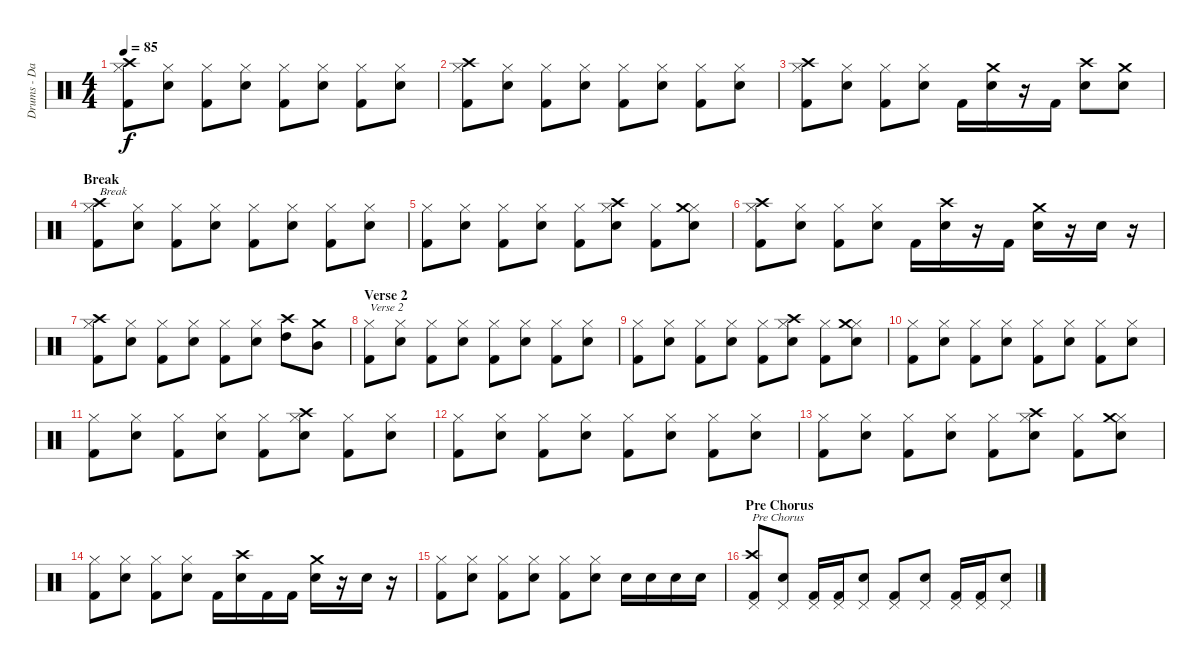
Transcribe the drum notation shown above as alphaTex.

\track ("Drums - Daniel Zimmermann" "Drums - Da") {instrument percussion}
\staff {score}
\articulation defaults
\ts (4 4)
\tempo 85
\clef neutral
\ks c
("Hi-Hat (closed)" "Kick (hit) 2" "Crash high (hit)").8{dy f} ("Hi-Hat (closed)" "Snare (hit) 2").8 ("Hi-Hat (closed)" "Kick (hit) 2").8 ("Hi-Hat (closed)" "Snare (hit) 2").8 ("Hi-Hat (closed)" "Kick (hit) 2").8 ("Hi-Hat (closed)" "Snare (hit) 2").8 ("Hi-Hat (closed)" "Kick (hit) 2").8 ("Hi-Hat (closed)" "Snare (hit) 2").8 |
("Hi-Hat (closed)" "Kick (hit) 2" "Crash high (hit)").8 ("Hi-Hat (closed)" "Snare (hit) 2").8 ("Hi-Hat (closed)" "Kick (hit) 2").8 ("Hi-Hat (closed)" "Snare (hit) 2").8 ("Hi-Hat (closed)" "Kick (hit) 2").8 ("Hi-Hat (closed)" "Snare (hit) 2").8 ("Hi-Hat (closed)" "Kick (hit) 2").8 ("Hi-Hat (closed)" "Snare (hit) 2").8 |
("Hi-Hat (closed)" "Kick (hit) 2" "Crash high (hit)").8 ("Hi-Hat (closed)" "Snare (hit) 2").8 ("Hi-Hat (closed)" "Kick (hit) 2").8 ("Hi-Hat (closed)" "Snare (hit) 2").8 "Kick (hit) 2".16 ("Snare (hit) 2" "Crash medium (hit)").16 r.16 "Kick (hit) 2".16 ("Snare (hit) 2" "Crash high (hit)").8 ("Snare (hit) 2" "Crash medium (hit)").8 |
\section ("" "Break")
("Hi-Hat (closed)" "Kick (hit) 2" "Crash high (hit)").8{txt "Break"} ("Hi-Hat (closed)" "Snare (hit) 2").8 ("Hi-Hat (closed)" "Kick (hit) 2").8 ("Hi-Hat (closed)" "Snare (hit) 2").8 ("Hi-Hat (closed)" "Kick (hit) 2").8 ("Hi-Hat (closed)" "Snare (hit) 2").8 ("Hi-Hat (closed)" "Kick (hit) 2").8 ("Hi-Hat (closed)" "Snare (hit) 2").8 |
("Hi-Hat (closed)" "Kick (hit) 2").8 ("Hi-Hat (closed)" "Snare (hit) 2").8 ("Hi-Hat (closed)" "Kick (hit) 2").8 ("Hi-Hat (closed)" "Snare (hit) 2").8 ("Hi-Hat (closed)" "Kick (hit) 2").8 ("Hi-Hat (closed)" "Snare (hit) 2" "Crash high (hit)").8 ("Hi-Hat (closed)" "Kick (hit) 2").8 ("Hi-Hat (closed)" "Snare (hit) 2" "Crash medium (hit)").8 |
("Hi-Hat (closed)" "Kick (hit) 2" "Crash high (hit)").8 ("Hi-Hat (closed)" "Snare (hit) 2").8 ("Hi-Hat (closed)" "Kick (hit) 2").8 ("Hi-Hat (closed)" "Snare (hit) 2").8 "Kick (hit) 2".16 ("Snare (hit) 2" "Crash high (hit)").16 r.16 "Kick (hit) 2".16 ("Snare (hit) 2" "Crash medium (hit)").16 r.16 "Snare (hit) 2".16 r.16 |
("Hi-Hat (closed)" "Kick (hit) 2" "Crash high (hit)").8 ("Hi-Hat (closed)" "Snare (hit) 2").8 ("Hi-Hat (closed)" "Kick (hit) 2").8 ("Hi-Hat (closed)" "Snare (hit) 2").8 ("Hi-Hat (closed)" "Kick (hit) 2").8 ("Hi-Hat (closed)" "Snare (hit) 2").8 ("High Tom (hit)" "Crash high (hit)").8 ("Mid Tom (hit)" "Crash medium (hit)").8 |
\section ("" "Verse 2")
("Hi-Hat (closed)" "Kick (hit) 2").8{txt "Verse 2"} ("Hi-Hat (closed)" "Snare (hit) 2").8 ("Hi-Hat (closed)" "Kick (hit) 2").8 ("Hi-Hat (closed)" "Snare (hit) 2").8 ("Hi-Hat (closed)" "Kick (hit) 2").8 ("Hi-Hat (closed)" "Snare (hit) 2").8 ("Hi-Hat (closed)" "Kick (hit) 2").8 ("Hi-Hat (closed)" "Snare (hit) 2").8 |
("Hi-Hat (closed)" "Kick (hit) 2").8 ("Hi-Hat (closed)" "Snare (hit) 2").8 ("Hi-Hat (closed)" "Kick (hit) 2").8 ("Hi-Hat (closed)" "Snare (hit) 2").8 ("Hi-Hat (closed)" "Kick (hit) 2").8 ("Hi-Hat (closed)" "Snare (hit) 2" "Crash high (hit)").8 ("Hi-Hat (closed)" "Kick (hit) 2").8 ("Hi-Hat (closed)" "Snare (hit) 2" "Crash medium (hit)").8 |
("Hi-Hat (closed)" "Kick (hit) 2").8 ("Hi-Hat (closed)" "Snare (hit) 2").8 ("Hi-Hat (closed)" "Kick (hit) 2").8 ("Hi-Hat (closed)" "Snare (hit) 2").8 ("Hi-Hat (closed)" "Kick (hit) 2").8 ("Hi-Hat (closed)" "Snare (hit) 2").8 ("Hi-Hat (closed)" "Kick (hit) 2").8 ("Hi-Hat (closed)" "Snare (hit) 2").8 |
("Hi-Hat (closed)" "Kick (hit) 2").8 ("Hi-Hat (closed)" "Snare (hit) 2").8 ("Hi-Hat (closed)" "Kick (hit) 2").8 ("Hi-Hat (closed)" "Snare (hit) 2").8 ("Hi-Hat (closed)" "Kick (hit) 2").8 ("Hi-Hat (closed)" "Snare (hit) 2" "Crash high (hit)").8 ("Hi-Hat (closed)" "Kick (hit) 2").8 ("Hi-Hat (closed)" "Snare (hit) 2").8 |
("Hi-Hat (closed)" "Kick (hit) 2").8 ("Hi-Hat (closed)" "Snare (hit) 2").8 ("Hi-Hat (closed)" "Kick (hit) 2").8 ("Hi-Hat (closed)" "Snare (hit) 2").8 ("Hi-Hat (closed)" "Kick (hit) 2").8 ("Hi-Hat (closed)" "Snare (hit) 2").8 ("Hi-Hat (closed)" "Kick (hit) 2").8 ("Hi-Hat (closed)" "Snare (hit) 2").8 |
("Hi-Hat (closed)" "Kick (hit) 2").8 ("Hi-Hat (closed)" "Snare (hit) 2").8 ("Hi-Hat (closed)" "Kick (hit) 2").8 ("Hi-Hat (closed)" "Snare (hit) 2").8 ("Hi-Hat (closed)" "Kick (hit) 2").8 ("Hi-Hat (closed)" "Snare (hit) 2" "Crash high (hit)").8 ("Hi-Hat (closed)" "Kick (hit) 2").8 ("Hi-Hat (closed)" "Snare (hit) 2" "Crash medium (hit)").8 |
("Hi-Hat (closed)" "Kick (hit) 2").8 ("Hi-Hat (closed)" "Snare (hit) 2").8 ("Hi-Hat (closed)" "Kick (hit) 2").8 ("Hi-Hat (closed)" "Snare (hit) 2").8 "Kick (hit) 2".16 ("Snare (hit) 2" "Crash high (hit)").16 "Kick (hit) 2".16 "Kick (hit) 2".16 ("Snare (hit) 2" "Crash medium (hit)").16 r.16 "Snare (hit) 2".16 r.16 |
("Hi-Hat (closed)" "Kick (hit) 2").8 ("Hi-Hat (closed)" "Snare (hit) 2").8 ("Hi-Hat (closed)" "Kick (hit) 2").8 ("Hi-Hat (closed)" "Snare (hit) 2").8 ("Hi-Hat (closed)" "Kick (hit) 2").8 ("Hi-Hat (closed)" "Snare (hit) 2").8 "Snare (hit) 2".16 "Snare (hit) 2".16 "Snare (hit) 2".16 "Snare (hit) 2".16 |
\section ("" "Pre Chorus")
("Pedal Hi-Hat (hit)" "Kick (hit) 2" "Crash high (hit)").8{txt "Pre Chorus"} ("Pedal Hi-Hat (hit)" "Snare (hit) 2").8 ("Pedal Hi-Hat (hit)" "Kick (hit) 2").16 ("Pedal Hi-Hat (hit)" "Kick (hit) 2").16 ("Pedal Hi-Hat (hit)" "Snare (hit) 2").8 ("Pedal Hi-Hat (hit)" "Kick (hit) 2").8 ("Pedal Hi-Hat (hit)" "Snare (hit) 2").8 ("Pedal Hi-Hat (hit)" "Kick (hit) 2").16 ("Pedal Hi-Hat (hit)" "Kick (hit) 2").16 ("Pedal Hi-Hat (hit)" "Snare (hit) 2").8
